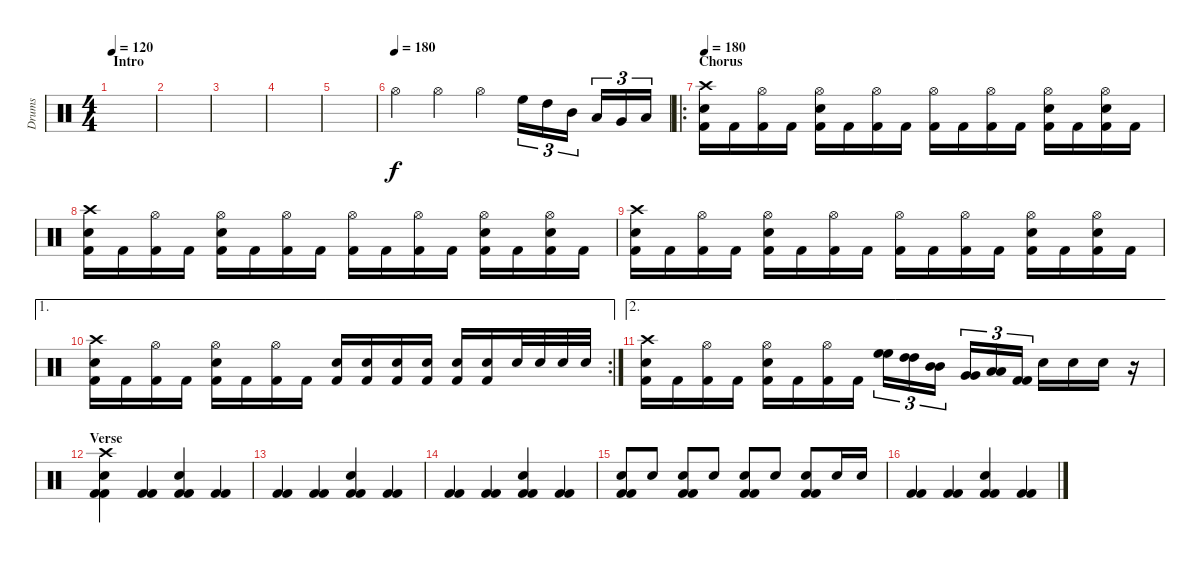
\track ("Drums" "Drums") {instrument percussion}
\staff {score}
\articulation defaults
\ts (4 4)
\section ("" "Intro")
\tempo 120
\clef neutral
\ks c
|
|
|
|
|
\tempo (180)
"Hi-Hat (open)".4 "Hi-Hat (open)".4 "Hi-Hat (open)".4 "High Floor Tom (hit)".16{tu (3 2)} "High Tom (hit)".16{tu (3 2)} "Mid Tom (hit)".16{tu (3 2)} "Low Tom (hit)".16{tu (3 2)} "Very Low Tom (hit)".16{tu (3 2)} "Low Floor Tom (hit)".16{tu (3 2)} |
\ro
\section ("" "Chorus")
\tempo 180
("Crash high (hit)" "Snare (hit) 2" "Kick (hit) 2").16 "Kick (hit) 2".16 ("Hi-Hat (open)" "Kick (hit) 2").16 "Kick (hit) 2".16 ("Hi-Hat (open)" "Snare (hit) 2" "Kick (hit) 2").16 "Kick (hit) 2".16 ("Hi-Hat (open)" "Kick (hit) 2").16 "Kick (hit) 2".16 ("Hi-Hat (open)" "Kick (hit) 2").16 "Kick (hit) 2".16 ("Hi-Hat (open)" "Kick (hit) 2").16 "Kick (hit) 2".16 ("Hi-Hat (open)" "Snare (hit) 2" "Kick (hit) 2").16 "Kick (hit) 2".16 ("Hi-Hat (open)" "Snare (hit) 2" "Kick (hit) 2").16 "Kick (hit) 2".16 |
("Crash high (hit)" "Snare (hit) 2" "Kick (hit) 2").16 "Kick (hit) 2".16 ("Hi-Hat (open)" "Kick (hit) 2").16 "Kick (hit) 2".16 ("Hi-Hat (open)" "Snare (hit) 2" "Kick (hit) 2").16 "Kick (hit) 2".16 ("Hi-Hat (open)" "Kick (hit) 2").16 "Kick (hit) 2".16 ("Hi-Hat (open)" "Kick (hit) 2").16 "Kick (hit) 2".16 ("Hi-Hat (open)" "Kick (hit) 2").16 "Kick (hit) 2".16 ("Hi-Hat (open)" "Snare (hit) 2" "Kick (hit) 2").16 "Kick (hit) 2".16 ("Hi-Hat (open)" "Snare (hit) 2" "Kick (hit) 2").16 "Kick (hit) 2".16 |
("Crash high (hit)" "Snare (hit) 2" "Kick (hit) 2").16 "Kick (hit) 2".16 ("Hi-Hat (open)" "Kick (hit) 2").16 "Kick (hit) 2".16 ("Hi-Hat (open)" "Snare (hit) 2" "Kick (hit) 2").16 "Kick (hit) 2".16 ("Hi-Hat (open)" "Kick (hit) 2").16 "Kick (hit) 2".16 ("Hi-Hat (open)" "Kick (hit) 2").16 "Kick (hit) 2".16 ("Hi-Hat (open)" "Kick (hit) 2").16 "Kick (hit) 2".16 ("Hi-Hat (open)" "Snare (hit) 2" "Kick (hit) 2").16 "Kick (hit) 2".16 ("Hi-Hat (open)" "Snare (hit) 2" "Kick (hit) 2").16 "Kick (hit) 2".16 |
\ae 1
\rc 2
("Crash high (hit)" "Snare (hit) 2" "Kick (hit) 2").16 "Kick (hit) 2".16 ("Hi-Hat (open)" "Kick (hit) 2").16 "Kick (hit) 2".16 ("Hi-Hat (open)" "Snare (hit) 2" "Kick (hit) 2").16 "Kick (hit) 2".16 ("Hi-Hat (open)" "Kick (hit) 2").16 "Kick (hit) 2".16 ("Snare (hit) 2" "Kick (hit) 2").16 ("Snare (hit) 2" "Kick (hit) 2").16 ("Snare (hit) 2" "Kick (hit) 2").16 ("Snare (hit) 2" "Kick (hit) 2").16 ("Snare (hit) 2" "Kick (hit) 2").16 ("Snare (hit) 2" "Kick (hit) 2").16 "Snare (hit) 2".32 "Snare (hit) 2".32 "Snare (hit) 2".32 "Snare (hit) 2".32 |
\ae 2
("Crash high (hit)" "Snare (hit) 2" "Kick (hit) 2").16 "Kick (hit) 2".16 ("Hi-Hat (open)" "Kick (hit) 2").16 "Kick (hit) 2".16 ("Hi-Hat (open)" "Snare (hit) 2" "Kick (hit) 2").16 "Kick (hit) 2".16 ("Hi-Hat (open)" "Kick (hit) 2").16 "Kick (hit) 2".16 ("High Floor Tom (hit)" "High Floor Tom (hit)").16{tu (3 2)} ("High Tom (hit)" "High Tom (hit)").16{tu (3 2)} ("Mid Tom (hit)" "Mid Tom (hit)").16{tu (3 2)} ("Very Low Tom (hit)" "Very Low Tom (hit)").16{tu (3 2)} ("Low Floor Tom (hit)" "Low Floor Tom (hit)").16{tu (3 2)} ("Kick (hit) 2" "Kick (hit) 2").16{tu (3 2)} "Snare (hit) 2".16 "Snare (hit) 2".16 "Snare (hit) 2".16 r.16 |
\section ("" "Verse")
("Snare (hit) 2" "Crash high (hit)" "Kick (hit) 2" "Kick (hit) 2").4 ("Kick (hit) 2" "Kick (hit) 2").4 ("Snare (hit) 2" "Kick (hit) 2" "Kick (hit) 2").4 ("Kick (hit) 2" "Kick (hit) 2").4 |
("Kick (hit) 2" "Kick (hit) 2").4 ("Kick (hit) 2" "Kick (hit) 2").4 ("Snare (hit) 2" "Kick (hit) 2" "Kick (hit) 2").4 ("Kick (hit) 2" "Kick (hit) 2").4 |
("Kick (hit) 2" "Kick (hit) 2").4 ("Kick (hit) 2" "Kick (hit) 2").4 ("Snare (hit) 2" "Kick (hit) 2" "Kick (hit) 2").4 ("Kick (hit) 2" "Kick (hit) 2").4 |
("Snare (hit) 2" "Kick (hit) 2" "Kick (hit) 2").8 "Snare (hit) 2".8 ("Snare (hit) 2" "Kick (hit) 2" "Kick (hit) 2").8 "Snare (hit) 2".8 ("Snare (hit) 2" "Kick (hit) 2" "Kick (hit) 2").8 "Snare (hit) 2".8 ("Snare (hit) 2" "Kick (hit) 2" "Kick (hit) 2").8 "Snare (hit) 2".16 "Snare (hit) 2".16 |
("Kick (hit) 2" "Kick (hit) 2").4 ("Kick (hit) 2" "Kick (hit) 2").4 ("Snare (hit) 2" "Kick (hit) 2" "Kick (hit) 2").4 ("Kick (hit) 2" "Kick (hit) 2").4
